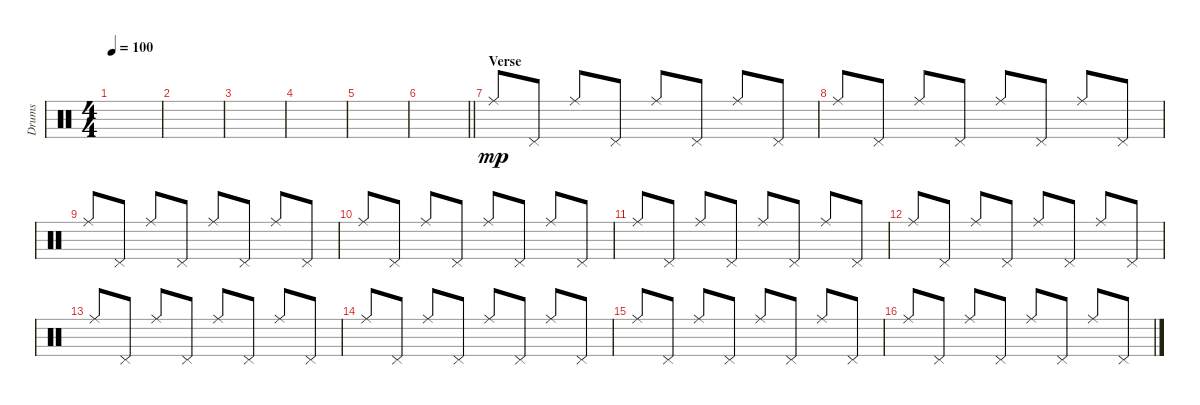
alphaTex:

\track ("Drums" "Drums") {instrument percussion}
\staff {score}
\articulation defaults
\ts (4 4)
\tempo 100
\clef neutral
\ks c
|
|
|
|
|
\barLineRight lightlight
|
\section ("" "Verse")
"Ride (middle)".8{dy mp} "Pedal Hi-Hat (hit)".8 "Ride (middle)".8 "Pedal Hi-Hat (hit)".8 "Ride (middle)".8 "Pedal Hi-Hat (hit)".8 "Ride (middle)".8 "Pedal Hi-Hat (hit)".8 |
"Ride (middle)".8 "Pedal Hi-Hat (hit)".8 "Ride (middle)".8 "Pedal Hi-Hat (hit)".8 "Ride (middle)".8 "Pedal Hi-Hat (hit)".8 "Ride (middle)".8 "Pedal Hi-Hat (hit)".8 |
"Ride (middle)".8 "Pedal Hi-Hat (hit)".8 "Ride (middle)".8 "Pedal Hi-Hat (hit)".8 "Ride (middle)".8 "Pedal Hi-Hat (hit)".8 "Ride (middle)".8 "Pedal Hi-Hat (hit)".8 |
"Ride (middle)".8 "Pedal Hi-Hat (hit)".8 "Ride (middle)".8 "Pedal Hi-Hat (hit)".8 "Ride (middle)".8 "Pedal Hi-Hat (hit)".8 "Ride (middle)".8 "Pedal Hi-Hat (hit)".8 |
"Ride (middle)".8 "Pedal Hi-Hat (hit)".8 "Ride (middle)".8 "Pedal Hi-Hat (hit)".8 "Ride (middle)".8 "Pedal Hi-Hat (hit)".8 "Ride (middle)".8 "Pedal Hi-Hat (hit)".8 |
"Ride (middle)".8 "Pedal Hi-Hat (hit)".8 "Ride (middle)".8 "Pedal Hi-Hat (hit)".8 "Ride (middle)".8 "Pedal Hi-Hat (hit)".8 "Ride (middle)".8 "Pedal Hi-Hat (hit)".8 |
"Ride (middle)".8 "Pedal Hi-Hat (hit)".8 "Ride (middle)".8 "Pedal Hi-Hat (hit)".8 "Ride (middle)".8 "Pedal Hi-Hat (hit)".8 "Ride (middle)".8 "Pedal Hi-Hat (hit)".8 |
"Ride (middle)".8 "Pedal Hi-Hat (hit)".8 "Ride (middle)".8 "Pedal Hi-Hat (hit)".8 "Ride (middle)".8 "Pedal Hi-Hat (hit)".8 "Ride (middle)".8 "Pedal Hi-Hat (hit)".8 |
"Ride (middle)".8 "Pedal Hi-Hat (hit)".8 "Ride (middle)".8 "Pedal Hi-Hat (hit)".8 "Ride (middle)".8 "Pedal Hi-Hat (hit)".8 "Ride (middle)".8 "Pedal Hi-Hat (hit)".8 |
"Ride (middle)".8 "Pedal Hi-Hat (hit)".8 "Ride (middle)".8 "Pedal Hi-Hat (hit)".8 "Ride (middle)".8 "Pedal Hi-Hat (hit)".8 "Ride (middle)".8 "Pedal Hi-Hat (hit)".8
